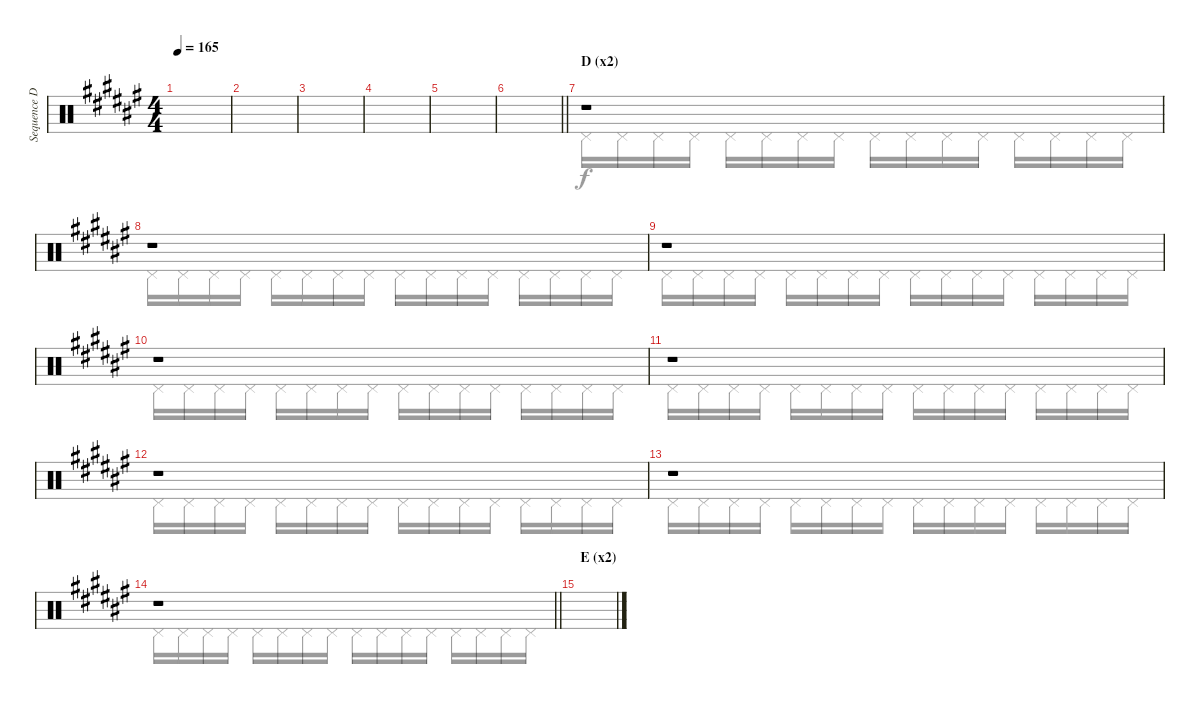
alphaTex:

\track ("Sequence Drums" "Sequence D") {instrument percussion}
\staff {score}
\articulation defaults
\voice
\ts (4 4)
\tempo 165
\clef neutral
\ks f#
|
|
|
|
|
\barLineRight lightlight
|
\section ("" "D (x2)")
r.1 |
r.1 |
r.1 |
r.1 |
r.1 |
r.1 |
r.1 |
\barLineRight lightlight
r.1 |
\section ("" "E (x2)")
|
\voice
\clef neutral
\ottava regular
\simile none
\ks f#
|
|
|
|
|
\barLineRight lightlight
|
"Pedal Hi-Hat (hit)".16 "Pedal Hi-Hat (hit)".16 "Pedal Hi-Hat (hit)".16 "Pedal Hi-Hat (hit)".16 "Pedal Hi-Hat (hit)".16 "Pedal Hi-Hat (hit)".16 "Pedal Hi-Hat (hit)".16 "Pedal Hi-Hat (hit)".16 "Pedal Hi-Hat (hit)".16 "Pedal Hi-Hat (hit)".16 "Pedal Hi-Hat (hit)".16 "Pedal Hi-Hat (hit)".16 "Pedal Hi-Hat (hit)".16 "Pedal Hi-Hat (hit)".16 "Pedal Hi-Hat (hit)".16 "Pedal Hi-Hat (hit)".16 |
"Pedal Hi-Hat (hit)".16 "Pedal Hi-Hat (hit)".16 "Pedal Hi-Hat (hit)".16 "Pedal Hi-Hat (hit)".16 "Pedal Hi-Hat (hit)".16 "Pedal Hi-Hat (hit)".16 "Pedal Hi-Hat (hit)".16 "Pedal Hi-Hat (hit)".16 "Pedal Hi-Hat (hit)".16 "Pedal Hi-Hat (hit)".16 "Pedal Hi-Hat (hit)".16 "Pedal Hi-Hat (hit)".16 "Pedal Hi-Hat (hit)".16 "Pedal Hi-Hat (hit)".16 "Pedal Hi-Hat (hit)".16 "Pedal Hi-Hat (hit)".16 |
"Pedal Hi-Hat (hit)".16 "Pedal Hi-Hat (hit)".16 "Pedal Hi-Hat (hit)".16 "Pedal Hi-Hat (hit)".16 "Pedal Hi-Hat (hit)".16 "Pedal Hi-Hat (hit)".16 "Pedal Hi-Hat (hit)".16 "Pedal Hi-Hat (hit)".16 "Pedal Hi-Hat (hit)".16 "Pedal Hi-Hat (hit)".16 "Pedal Hi-Hat (hit)".16 "Pedal Hi-Hat (hit)".16 "Pedal Hi-Hat (hit)".16 "Pedal Hi-Hat (hit)".16 "Pedal Hi-Hat (hit)".16 "Pedal Hi-Hat (hit)".16 |
"Pedal Hi-Hat (hit)".16 "Pedal Hi-Hat (hit)".16 "Pedal Hi-Hat (hit)".16 "Pedal Hi-Hat (hit)".16 "Pedal Hi-Hat (hit)".16 "Pedal Hi-Hat (hit)".16 "Pedal Hi-Hat (hit)".16 "Pedal Hi-Hat (hit)".16 "Pedal Hi-Hat (hit)".16 "Pedal Hi-Hat (hit)".16 "Pedal Hi-Hat (hit)".16 "Pedal Hi-Hat (hit)".16 "Pedal Hi-Hat (hit)".16 "Pedal Hi-Hat (hit)".16 "Pedal Hi-Hat (hit)".16 "Pedal Hi-Hat (hit)".16 |
"Pedal Hi-Hat (hit)".16 "Pedal Hi-Hat (hit)".16 "Pedal Hi-Hat (hit)".16 "Pedal Hi-Hat (hit)".16 "Pedal Hi-Hat (hit)".16 "Pedal Hi-Hat (hit)".16 "Pedal Hi-Hat (hit)".16 "Pedal Hi-Hat (hit)".16 "Pedal Hi-Hat (hit)".16 "Pedal Hi-Hat (hit)".16 "Pedal Hi-Hat (hit)".16 "Pedal Hi-Hat (hit)".16 "Pedal Hi-Hat (hit)".16 "Pedal Hi-Hat (hit)".16 "Pedal Hi-Hat (hit)".16 "Pedal Hi-Hat (hit)".16 |
"Pedal Hi-Hat (hit)".16 "Pedal Hi-Hat (hit)".16 "Pedal Hi-Hat (hit)".16 "Pedal Hi-Hat (hit)".16 "Pedal Hi-Hat (hit)".16 "Pedal Hi-Hat (hit)".16 "Pedal Hi-Hat (hit)".16 "Pedal Hi-Hat (hit)".16 "Pedal Hi-Hat (hit)".16 "Pedal Hi-Hat (hit)".16 "Pedal Hi-Hat (hit)".16 "Pedal Hi-Hat (hit)".16 "Pedal Hi-Hat (hit)".16 "Pedal Hi-Hat (hit)".16 "Pedal Hi-Hat (hit)".16 "Pedal Hi-Hat (hit)".16 |
"Pedal Hi-Hat (hit)".16 "Pedal Hi-Hat (hit)".16 "Pedal Hi-Hat (hit)".16 "Pedal Hi-Hat (hit)".16 "Pedal Hi-Hat (hit)".16 "Pedal Hi-Hat (hit)".16 "Pedal Hi-Hat (hit)".16 "Pedal Hi-Hat (hit)".16 "Pedal Hi-Hat (hit)".16 "Pedal Hi-Hat (hit)".16 "Pedal Hi-Hat (hit)".16 "Pedal Hi-Hat (hit)".16 "Pedal Hi-Hat (hit)".16 "Pedal Hi-Hat (hit)".16 "Pedal Hi-Hat (hit)".16 "Pedal Hi-Hat (hit)".16 |
\barLineRight lightlight "Pedal Hi-Hat (hit)".16 "Pedal Hi-Hat (hit)".16 "Pedal Hi-Hat (hit)".16 "Pedal Hi-Hat (hit)".16 "Pedal Hi-Hat (hit)".16 "Pedal Hi-Hat (hit)".16 "Pedal Hi-Hat (hit)".16 "Pedal Hi-Hat (hit)".16 "Pedal Hi-Hat (hit)".16 "Pedal Hi-Hat (hit)".16 "Pedal Hi-Hat (hit)".16 "Pedal Hi-Hat (hit)".16 "Pedal Hi-Hat (hit)".16 "Pedal Hi-Hat (hit)".16 "Pedal Hi-Hat (hit)".16 "Pedal Hi-Hat (hit)".16
|
|
